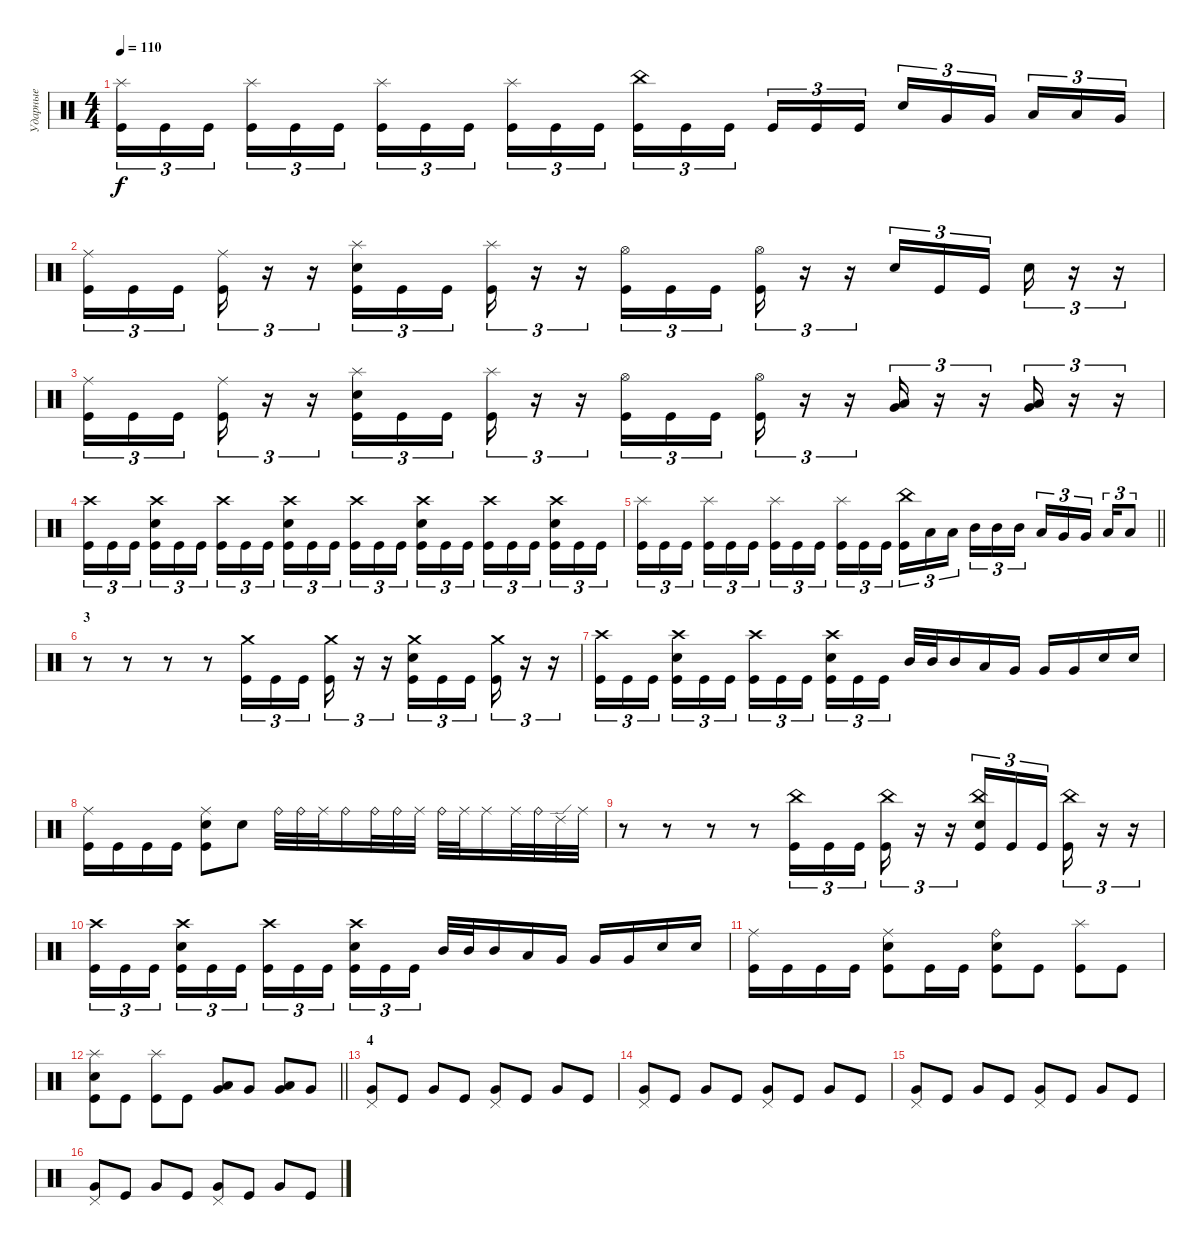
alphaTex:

\track ("Ударные" "Ударные") {instrument percussion}
\staff {score}
\articulation defaults
\ts (4 4)
\tempo 110
\clef neutral
\ks c
("Splash (hit)" "Kick (hit)").16{tu (3 2) dy f} "Kick (hit)".16{tu (3 2)} "Kick (hit)".16{tu (3 2) beam splitsecondary} ("Splash (hit)" "Kick (hit)").16{tu (3 2)} "Kick (hit)".16{tu (3 2)} "Kick (hit)".16{tu (3 2)} ("Splash (hit)" "Kick (hit)").16{tu (3 2)} "Kick (hit)".16{tu (3 2)} "Kick (hit)".16{tu (3 2) beam splitsecondary} ("Splash (hit)" "Kick (hit)").16{tu (3 2)} "Kick (hit)".16{tu (3 2)} "Kick (hit)".16{tu (3 2)} ("China (hit)" "Kick (hit)").16{tu (3 2)} "Kick (hit)".16{tu (3 2)} "Kick (hit)".16{tu (3 2) beam splitsecondary} "Kick (hit)".16{tu (3 2)} "Kick (hit)".16{tu (3 2)} "Kick (hit)".16{tu (3 2)} "Electric Snare (hit)".16{tu (3 2)} "Very Low Tom (hit)".16{tu (3 2)} "Very Low Tom (hit)".16{tu (3 2) beam splitsecondary} "Low Tom (hit)".16{tu (3 2)} "Low Tom (hit)".16{tu (3 2)} "Very Low Tom (hit)".16{tu (3 2)} |
("Ride (middle)" "Kick (hit)").16{tu (3 2)} "Kick (hit)".16{tu (3 2)} "Kick (hit)".16{tu (3 2) beam splitsecondary} ("Ride (middle)" "Kick (hit)").16{tu (3 2)} r.16{tu (3 2)} r.16{tu (3 2)} ("Splash (hit)" "Electric Snare (hit)" "Kick (hit)").16{tu (3 2)} "Kick (hit)".16{tu (3 2)} "Kick (hit)".16{tu (3 2) beam splitsecondary} ("Splash (hit)" "Kick (hit)").16{tu (3 2)} r.16{tu (3 2)} r.16{tu (3 2)} ("Hi-Hat (open)" "Kick (hit)").16{tu (3 2)} "Kick (hit)".16{tu (3 2)} "Kick (hit)".16{tu (3 2) beam splitsecondary} ("Hi-Hat (open)" "Kick (hit)").16{tu (3 2)} r.16{tu (3 2)} r.16{tu (3 2)} "Electric Snare (hit)".16{tu (3 2)} "Kick (hit)".16{tu (3 2)} "Kick (hit)".16{tu (3 2) beam splitsecondary} "Electric Snare (hit)".16{tu (3 2)} r.16{tu (3 2)} r.16{tu (3 2)} |
("Ride (middle)" "Kick (hit)").16{tu (3 2)} "Kick (hit)".16{tu (3 2)} "Kick (hit)".16{tu (3 2) beam splitsecondary} ("Ride (middle)" "Kick (hit)").16{tu (3 2)} r.16{tu (3 2)} r.16{tu (3 2)} ("Splash (hit)" "Electric Snare (hit)" "Kick (hit)").16{tu (3 2)} "Kick (hit)".16{tu (3 2)} "Kick (hit)".16{tu (3 2) beam splitsecondary} ("Splash (hit)" "Kick (hit)").16{tu (3 2)} r.16{tu (3 2)} r.16{tu (3 2)} ("Hi-Hat (open)" "Kick (hit)").16{tu (3 2)} "Kick (hit)".16{tu (3 2)} "Kick (hit)".16{tu (3 2) beam splitsecondary} ("Hi-Hat (open)" "Kick (hit)").16{tu (3 2)} r.16{tu (3 2)} r.16{tu (3 2)} ("Very Low Tom (hit)" "Low Tom (hit)").16{tu (3 2)} r.16{tu (3 2)} r.16{tu (3 2)} ("Very Low Tom (hit)" "Low Tom (hit)").16{tu (3 2)} r.16{tu (3 2)} r.16{tu (3 2)} |
("Crash high (hit)" "Kick (hit)").16{tu (3 2)} "Kick (hit)".16{tu (3 2)} "Kick (hit)".16{tu (3 2) beam splitsecondary} ("Crash high (hit)" "Electric Snare (hit)" "Kick (hit)").16{tu (3 2)} "Kick (hit)".16{tu (3 2)} "Kick (hit)".16{tu (3 2)} ("Crash high (hit)" "Kick (hit)").16{tu (3 2)} "Kick (hit)".16{tu (3 2)} "Kick (hit)".16{tu (3 2) beam splitsecondary} ("Crash high (hit)" "Electric Snare (hit)" "Kick (hit)").16{tu (3 2)} "Kick (hit)".16{tu (3 2)} "Kick (hit)".16{tu (3 2)} ("Crash high (hit)" "Kick (hit)").16{tu (3 2)} "Kick (hit)".16{tu (3 2)} "Kick (hit)".16{tu (3 2) beam splitsecondary} ("Crash high (hit)" "Electric Snare (hit)" "Kick (hit)").16{tu (3 2)} "Kick (hit)".16{tu (3 2)} "Kick (hit)".16{tu (3 2)} ("Crash high (hit)" "Kick (hit)").16{tu (3 2)} "Kick (hit)".16{tu (3 2)} "Kick (hit)".16{tu (3 2) beam splitsecondary} ("Crash high (hit)" "Electric Snare (hit)" "Kick (hit)").16{tu (3 2)} "Kick (hit)".16{tu (3 2)} "Kick (hit)".16{tu (3 2)} |
\barLineRight lightlight
("Splash (hit)" "Kick (hit)").16{tu (3 2)} "Kick (hit)".16{tu (3 2)} "Kick (hit)".16{tu (3 2) beam splitsecondary} ("Splash (hit)" "Kick (hit)").16{tu (3 2)} "Kick (hit)".16{tu (3 2)} "Kick (hit)".16{tu (3 2)} ("Splash (hit)" "Kick (hit)").16{tu (3 2)} "Kick (hit)".16{tu (3 2)} "Kick (hit)".16{tu (3 2) beam splitsecondary} ("Splash (hit)" "Kick (hit)").16{tu (3 2)} "Kick (hit)".16{tu (3 2)} "Kick (hit)".16{tu (3 2)} ("China (hit)" "Kick (hit)").16{tu (3 2)} "Low Tom (hit)".16{tu (3 2)} "Low Tom (hit)".16{tu (3 2) beam splitsecondary} "Mid Tom (hit)".16{tu (3 2)} "Mid Tom (hit)".16{tu (3 2)} "Mid Tom (hit)".16{tu (3 2)} "Low Tom (hit)".16{tu (3 2)} "Very Low Tom (hit)".16{tu (3 2)} "Very Low Tom (hit)".16{tu (3 2) beam splitsecondary} "Low Floor Tom (hit)".16{tu (3 2)} "Low Floor Tom (hit)".8{tu (3 2)} |
\section ("" "3")
r.8 r.8 r.8 r.8 ("Crash medium (hit)" "Kick (hit)").16{tu (3 2)} "Kick (hit)".16{tu (3 2)} "Kick (hit)".16{tu (3 2) beam splitsecondary} ("Crash medium (hit)" "Kick (hit)").16{tu (3 2)} r.16{tu (3 2)} r.16{tu (3 2)} ("Crash medium (hit)" "Electric Snare (hit)" "Kick (hit)").16{tu (3 2)} "Kick (hit)".16{tu (3 2)} "Kick (hit)".16{tu (3 2) beam splitsecondary} ("Crash medium (hit)" "Kick (hit)").16{tu (3 2)} r.16{tu (3 2)} r.16{tu (3 2)} |
("Crash high (hit)" "Kick (hit)").16{tu (3 2)} "Kick (hit)".16{tu (3 2)} "Kick (hit)".16{tu (3 2) beam splitsecondary} ("Crash high (hit)" "Electric Snare (hit)" "Kick (hit)").16{tu (3 2)} "Kick (hit)".16{tu (3 2)} "Kick (hit)".16{tu (3 2)} ("Crash high (hit)" "Kick (hit)").16{tu (3 2)} "Kick (hit)".16{tu (3 2)} "Kick (hit)".16{tu (3 2) beam splitsecondary} ("Crash high (hit)" "Electric Snare (hit)" "Kick (hit)").16{tu (3 2)} "Kick (hit)".16{tu (3 2)} "Kick (hit)".16{tu (3 2)} "Mid Tom (hit)".32 "Mid Tom (hit)".32 "Mid Tom (hit)".16 "Low Tom (hit)".16 "Very Low Tom (hit)".16 "Very Low Tom (hit)".16 "Very Low Tom (hit)".16 "Electric Snare (hit)".16 "Electric Snare (hit)".16 |
("Ride (middle)" "Kick (hit)").16 "Kick (hit)".16 "Kick (hit)".16 "Kick (hit)".16 ("Ride (middle)" "Electric Snare (hit)" "Kick (hit)").8 "Electric Snare (hit)".8 "Ride (bell)".32 "Ride (bell)".32 "Ride (middle)".32 "Ride (bell)".16 "Ride (bell)".32 "Ride (bell)".32 "Ride (middle)".32 "Ride (bell)".32 "Ride (middle)".32 "Ride (middle)".16 "Ride (middle)".32 "Ride (bell)".32 "Ride (edge) 2".32 "Ride (middle)".32 |
r.8 r.8 r.8 r.8 ("China (hit)" "Kick (hit)").16{tu (3 2)} "Kick (hit)".16{tu (3 2)} "Kick (hit)".16{tu (3 2) beam splitsecondary} ("China (hit)" "Kick (hit)").16{tu (3 2)} r.16{tu (3 2)} r.16{tu (3 2)} ("China (hit)" "Electric Snare (hit)" "Kick (hit)").16{tu (3 2)} "Kick (hit)".16{tu (3 2)} "Kick (hit)".16{tu (3 2) beam splitsecondary} ("China (hit)" "Kick (hit)").16{tu (3 2)} r.16{tu (3 2)} r.16{tu (3 2)} |
("Crash high (hit)" "Kick (hit)").16{tu (3 2)} "Kick (hit)".16{tu (3 2)} "Kick (hit)".16{tu (3 2) beam splitsecondary} ("Crash high (hit)" "Electric Snare (hit)" "Kick (hit)").16{tu (3 2)} "Kick (hit)".16{tu (3 2)} "Kick (hit)".16{tu (3 2)} ("Crash high (hit)" "Kick (hit)").16{tu (3 2)} "Kick (hit)".16{tu (3 2)} "Kick (hit)".16{tu (3 2) beam splitsecondary} ("Crash high (hit)" "Electric Snare (hit)" "Kick (hit)").16{tu (3 2)} "Kick (hit)".16{tu (3 2)} "Kick (hit)".16{tu (3 2)} "Mid Tom (hit)".32 "Mid Tom (hit)".32 "Mid Tom (hit)".16 "Low Tom (hit)".16 "Very Low Tom (hit)".16 "Very Low Tom (hit)".16 "Very Low Tom (hit)".16 "Electric Snare (hit)".16 "Electric Snare (hit)".16 |
("Ride (middle)" "Kick (hit)").16 "Kick (hit)".16 "Kick (hit)".16 "Kick (hit)".16 ("Ride (middle)" "Electric Snare (hit)" "Kick (hit)").8 "Kick (hit)".16 "Kick (hit)".16 ("Ride (bell)" "Electric Snare (hit)" "Kick (hit)").8 "Kick (hit)".8 ("Splash (hit)" "Kick (hit)").8 "Kick (hit)".8 |
\barLineRight lightlight
("Splash (hit)" "Electric Snare (hit)" "Kick (hit)").8 "Kick (hit)".8 ("Splash (hit)" "Kick (hit)").8 "Kick (hit)".8 ("Low Tom (hit)" "Very Low Tom (hit)").8 "Very Low Tom (hit)".8 ("Low Floor Tom (hit)" "Very Low Tom (hit)").8 "Very Low Tom (hit)".8 |
\section ("" "4")
("Pedal Hi-Hat (hit)" "Very Low Tom (hit)").8 "Kick (hit)".8 "Very Low Tom (hit)".8 "Kick (hit)".8 ("Pedal Hi-Hat (hit)" "Very Low Tom (hit)").8 "Kick (hit)".8 "Very Low Tom (hit)".8 "Kick (hit)".8 |
("Pedal Hi-Hat (hit)" "Very Low Tom (hit)").8 "Kick (hit)".8 "Very Low Tom (hit)".8 "Kick (hit)".8 ("Pedal Hi-Hat (hit)" "Very Low Tom (hit)").8 "Kick (hit)".8 "Very Low Tom (hit)".8 "Kick (hit)".8 |
("Pedal Hi-Hat (hit)" "Very Low Tom (hit)").8 "Kick (hit)".8 "Very Low Tom (hit)".8 "Kick (hit)".8 ("Pedal Hi-Hat (hit)" "Very Low Tom (hit)").8 "Kick (hit)".8 "Very Low Tom (hit)".8 "Kick (hit)".8 |
("Pedal Hi-Hat (hit)" "Very Low Tom (hit)").8 "Kick (hit)".8 "Very Low Tom (hit)".8 "Kick (hit)".8 ("Pedal Hi-Hat (hit)" "Very Low Tom (hit)").8 "Kick (hit)".8 "Very Low Tom (hit)".8 "Kick (hit)".8
